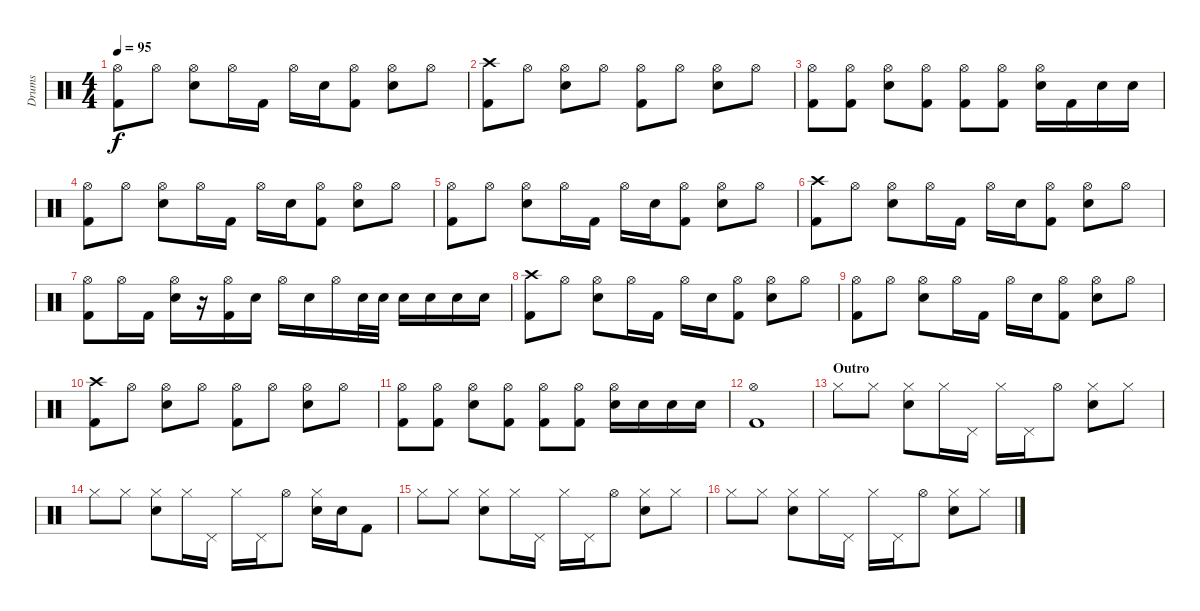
\track ("Drums" "Drums") {instrument percussion}
\staff {score}
\articulation defaults
\ts (4 4)
\tempo 95
\clef neutral
\ks c
("Hi-Hat (open)" "Kick (hit) 2").8{dy f} "Hi-Hat (open)".8 ("Hi-Hat (open)" "Snare (hit) 2").8 "Hi-Hat (open)".16 "Kick (hit) 2".16 "Hi-Hat (open)".16 "Snare (hit) 2".16 ("Hi-Hat (open)" "Kick (hit) 2").8 ("Hi-Hat (open)" "Snare (hit) 2").8 "Hi-Hat (open)".8 |
("Crash high (hit)" "Kick (hit) 2").8 "Hi-Hat (open)".8 ("Hi-Hat (open)" "Snare (hit) 2").8 "Hi-Hat (open)".8 ("Hi-Hat (open)" "Kick (hit) 2").8 "Hi-Hat (open)".8 ("Hi-Hat (open)" "Snare (hit) 2").8 "Hi-Hat (open)".8 |
("Hi-Hat (open)" "Kick (hit) 2").8 ("Hi-Hat (open)" "Kick (hit) 2").8 ("Hi-Hat (open)" "Snare (hit) 2").8 ("Hi-Hat (open)" "Kick (hit) 2").8 ("Hi-Hat (open)" "Kick (hit) 2").8 ("Hi-Hat (open)" "Kick (hit) 2").8 ("Hi-Hat (open)" "Snare (hit) 2").16 "Kick (hit) 2".16 "Snare (hit) 2".16 "Snare (hit) 2".16 |
("Hi-Hat (open)" "Kick (hit) 2").8 "Hi-Hat (open)".8 ("Hi-Hat (open)" "Snare (hit) 2").8 "Hi-Hat (open)".16 "Kick (hit) 2".16 "Hi-Hat (open)".16 "Snare (hit) 2".16 ("Hi-Hat (open)" "Kick (hit) 2").8 ("Hi-Hat (open)" "Snare (hit) 2").8 "Hi-Hat (open)".8 |
("Hi-Hat (open)" "Kick (hit) 2").8 "Hi-Hat (open)".8 ("Hi-Hat (open)" "Snare (hit) 2").8 "Hi-Hat (open)".16 "Kick (hit) 2".16 "Hi-Hat (open)".16 "Snare (hit) 2".16 ("Hi-Hat (open)" "Kick (hit) 2").8 ("Hi-Hat (open)" "Snare (hit) 2").8 "Hi-Hat (open)".8 |
("Crash high (hit)" "Kick (hit) 2").8 "Hi-Hat (open)".8 ("Hi-Hat (open)" "Snare (hit) 2").8 "Hi-Hat (open)".16 "Kick (hit) 2".16 "Hi-Hat (open)".16 "Snare (hit) 2".16 ("Hi-Hat (open)" "Kick (hit) 2").8 ("Hi-Hat (open)" "Snare (hit) 2").8 "Hi-Hat (open)".8 |
("Hi-Hat (open)" "Kick (hit) 2").8 "Hi-Hat (open)".16 "Kick (hit) 2".16 ("Hi-Hat (open)" "Snare (hit) 2").16 r.16 ("Hi-Hat (open)" "Kick (hit) 2").16 "Snare (hit) 2".16 "Hi-Hat (open)".16 "Snare (hit) 2".16 "Hi-Hat (open)".16 "Snare (hit) 2".32 "Snare (hit) 2".32 "Snare (hit) 2".16 "Snare (hit) 2".16 "Snare (hit) 2".16 "Snare (hit) 2".16 |
("Crash high (hit)" "Kick (hit) 2").8 "Hi-Hat (open)".8 ("Hi-Hat (open)" "Snare (hit) 2").8 "Hi-Hat (open)".16 "Kick (hit) 2".16 "Hi-Hat (open)".16 "Snare (hit) 2".16 ("Hi-Hat (open)" "Kick (hit) 2").8 ("Hi-Hat (open)" "Snare (hit) 2").8 "Hi-Hat (open)".8 |
("Hi-Hat (open)" "Kick (hit) 2").8 "Hi-Hat (open)".8 ("Hi-Hat (open)" "Snare (hit) 2").8 "Hi-Hat (open)".16 "Kick (hit) 2".16 "Hi-Hat (open)".16 "Snare (hit) 2".16 ("Hi-Hat (open)" "Kick (hit) 2").8 ("Hi-Hat (open)" "Snare (hit) 2").8 "Hi-Hat (open)".8 |
("Crash high (hit)" "Kick (hit) 2").8 "Hi-Hat (open)".8 ("Hi-Hat (open)" "Snare (hit) 2").8 "Hi-Hat (open)".8 ("Hi-Hat (open)" "Kick (hit) 2").8 "Hi-Hat (open)".8 ("Hi-Hat (open)" "Snare (hit) 2").8 "Hi-Hat (open)".8 |
("Hi-Hat (open)" "Kick (hit) 2").8 ("Hi-Hat (open)" "Kick (hit) 2").8 ("Hi-Hat (open)" "Snare (hit) 2").8 ("Hi-Hat (open)" "Kick (hit) 2").8 ("Hi-Hat (open)" "Kick (hit) 2").8 ("Hi-Hat (open)" "Kick (hit) 2").8 ("Hi-Hat (open)" "Snare (hit) 2").16 "Snare (hit) 2".16 "Snare (hit) 2".16 "Snare (hit) 2".16 |
("Hi-Hat (open)" "Kick (hit) 2").1 |
\section ("" "Outro")
"Hi-Hat (closed)".8 "Hi-Hat (closed)".8 ("Hi-Hat (closed)" "Snare (hit) 2").8 "Hi-Hat (closed)".16 "Pedal Hi-Hat (hit)".16 "Hi-Hat (closed)".16 "Pedal Hi-Hat (hit)".16 "Hi-Hat (open)".8 ("Hi-Hat (closed)" "Snare (hit) 2").8 "Hi-Hat (closed)".8 |
"Hi-Hat (closed)".8 "Hi-Hat (closed)".8 ("Hi-Hat (closed)" "Snare (hit) 2").8 "Hi-Hat (closed)".16 "Pedal Hi-Hat (hit)".16 "Hi-Hat (closed)".16 "Pedal Hi-Hat (hit)".16 "Hi-Hat (open)".8 ("Hi-Hat (closed)" "Snare (hit) 2").16 "Snare (hit) 2".16 "Kick (hit) 2".8 |
"Hi-Hat (closed)".8 "Hi-Hat (closed)".8 ("Hi-Hat (closed)" "Snare (hit) 2").8 "Hi-Hat (closed)".16 "Pedal Hi-Hat (hit)".16 "Hi-Hat (closed)".16 "Pedal Hi-Hat (hit)".16 "Hi-Hat (open)".8 ("Hi-Hat (closed)" "Snare (hit) 2").8 "Hi-Hat (closed)".8 |
"Hi-Hat (closed)".8 "Hi-Hat (closed)".8 ("Hi-Hat (closed)" "Snare (hit) 2").8 "Hi-Hat (closed)".16 "Pedal Hi-Hat (hit)".16 "Hi-Hat (closed)".16 "Pedal Hi-Hat (hit)".16 "Hi-Hat (open)".8 ("Hi-Hat (closed)" "Snare (hit) 2").8 "Hi-Hat (closed)".8
